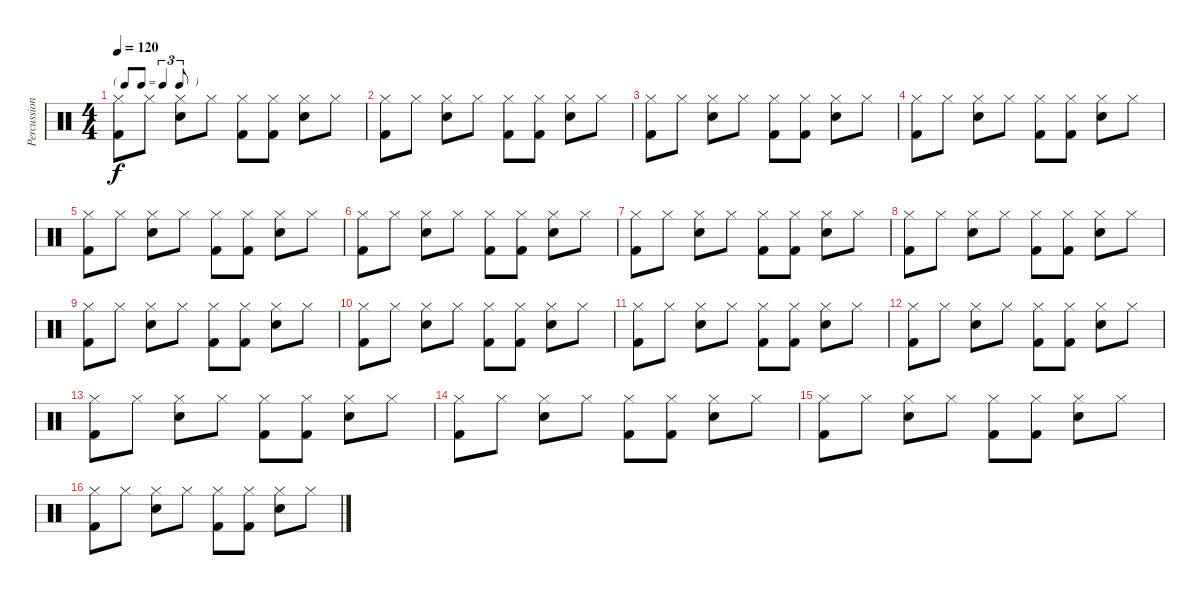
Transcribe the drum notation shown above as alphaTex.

\track ("Percussion" "Percussion") {instrument percussion}
\staff {score}
\articulation defaults
\ts (4 4)
\tf triplet8th
\tempo 120
\clef neutral
\ks c
("Hi-Hat (closed)" "Kick (hit) 2").8{dy f} "Hi-Hat (closed)".8 ("Hi-Hat (closed)" "Snare (hit) 2").8 "Hi-Hat (closed)".8 ("Hi-Hat (closed)" "Kick (hit) 2").8 ("Hi-Hat (closed)" "Kick (hit) 2").8 ("Hi-Hat (closed)" "Snare (hit) 2").8 "Hi-Hat (closed)".8 |
("Hi-Hat (closed)" "Kick (hit) 2").8 "Hi-Hat (closed)".8 ("Hi-Hat (closed)" "Snare (hit) 2").8 "Hi-Hat (closed)".8 ("Hi-Hat (closed)" "Kick (hit) 2").8 ("Hi-Hat (closed)" "Kick (hit) 2").8 ("Hi-Hat (closed)" "Snare (hit) 2").8 "Hi-Hat (closed)".8 |
("Hi-Hat (closed)" "Kick (hit) 2").8 "Hi-Hat (closed)".8 ("Hi-Hat (closed)" "Snare (hit) 2").8 "Hi-Hat (closed)".8 ("Hi-Hat (closed)" "Kick (hit) 2").8 ("Hi-Hat (closed)" "Kick (hit) 2").8 ("Hi-Hat (closed)" "Snare (hit) 2").8 "Hi-Hat (closed)".8 |
("Hi-Hat (closed)" "Kick (hit) 2").8 "Hi-Hat (closed)".8 ("Hi-Hat (closed)" "Snare (hit) 2").8 "Hi-Hat (closed)".8 ("Hi-Hat (closed)" "Kick (hit) 2").8 ("Hi-Hat (closed)" "Kick (hit) 2").8 ("Hi-Hat (closed)" "Snare (hit) 2").8 "Hi-Hat (closed)".8 |
("Hi-Hat (closed)" "Kick (hit) 2").8 "Hi-Hat (closed)".8 ("Hi-Hat (closed)" "Snare (hit) 2").8 "Hi-Hat (closed)".8 ("Hi-Hat (closed)" "Kick (hit) 2").8 ("Hi-Hat (closed)" "Kick (hit) 2").8 ("Hi-Hat (closed)" "Snare (hit) 2").8 "Hi-Hat (closed)".8 |
("Hi-Hat (closed)" "Kick (hit) 2").8 "Hi-Hat (closed)".8 ("Hi-Hat (closed)" "Snare (hit) 2").8 "Hi-Hat (closed)".8 ("Hi-Hat (closed)" "Kick (hit) 2").8 ("Hi-Hat (closed)" "Kick (hit) 2").8 ("Hi-Hat (closed)" "Snare (hit) 2").8 "Hi-Hat (closed)".8 |
("Hi-Hat (closed)" "Kick (hit) 2").8 "Hi-Hat (closed)".8 ("Hi-Hat (closed)" "Snare (hit) 2").8 "Hi-Hat (closed)".8 ("Hi-Hat (closed)" "Kick (hit) 2").8 ("Hi-Hat (closed)" "Kick (hit) 2").8 ("Hi-Hat (closed)" "Snare (hit) 2").8 "Hi-Hat (closed)".8 |
("Hi-Hat (closed)" "Kick (hit) 2").8 "Hi-Hat (closed)".8 ("Hi-Hat (closed)" "Snare (hit) 2").8 "Hi-Hat (closed)".8 ("Hi-Hat (closed)" "Kick (hit) 2").8 ("Hi-Hat (closed)" "Kick (hit) 2").8 ("Hi-Hat (closed)" "Snare (hit) 2").8 "Hi-Hat (closed)".8 |
("Hi-Hat (closed)" "Kick (hit) 2").8 "Hi-Hat (closed)".8 ("Hi-Hat (closed)" "Snare (hit) 2").8 "Hi-Hat (closed)".8 ("Hi-Hat (closed)" "Kick (hit) 2").8 ("Hi-Hat (closed)" "Kick (hit) 2").8 ("Hi-Hat (closed)" "Snare (hit) 2").8 "Hi-Hat (closed)".8 |
("Hi-Hat (closed)" "Kick (hit) 2").8 "Hi-Hat (closed)".8 ("Hi-Hat (closed)" "Snare (hit) 2").8 "Hi-Hat (closed)".8 ("Hi-Hat (closed)" "Kick (hit) 2").8 ("Hi-Hat (closed)" "Kick (hit) 2").8 ("Hi-Hat (closed)" "Snare (hit) 2").8 "Hi-Hat (closed)".8 |
("Hi-Hat (closed)" "Kick (hit) 2").8 "Hi-Hat (closed)".8 ("Hi-Hat (closed)" "Snare (hit) 2").8 "Hi-Hat (closed)".8 ("Hi-Hat (closed)" "Kick (hit) 2").8 ("Hi-Hat (closed)" "Kick (hit) 2").8 ("Hi-Hat (closed)" "Snare (hit) 2").8 "Hi-Hat (closed)".8 |
("Hi-Hat (closed)" "Kick (hit) 2").8 "Hi-Hat (closed)".8 ("Hi-Hat (closed)" "Snare (hit) 2").8 "Hi-Hat (closed)".8 ("Hi-Hat (closed)" "Kick (hit) 2").8 ("Hi-Hat (closed)" "Kick (hit) 2").8 ("Hi-Hat (closed)" "Snare (hit) 2").8 "Hi-Hat (closed)".8 |
("Hi-Hat (closed)" "Kick (hit) 2").8 "Hi-Hat (closed)".8 ("Hi-Hat (closed)" "Snare (hit) 2").8 "Hi-Hat (closed)".8 ("Hi-Hat (closed)" "Kick (hit) 2").8 ("Hi-Hat (closed)" "Kick (hit) 2").8 ("Hi-Hat (closed)" "Snare (hit) 2").8 "Hi-Hat (closed)".8 |
("Hi-Hat (closed)" "Kick (hit) 2").8 "Hi-Hat (closed)".8 ("Hi-Hat (closed)" "Snare (hit) 2").8 "Hi-Hat (closed)".8 ("Hi-Hat (closed)" "Kick (hit) 2").8 ("Hi-Hat (closed)" "Kick (hit) 2").8 ("Hi-Hat (closed)" "Snare (hit) 2").8 "Hi-Hat (closed)".8 |
("Hi-Hat (closed)" "Kick (hit) 2").8 "Hi-Hat (closed)".8 ("Hi-Hat (closed)" "Snare (hit) 2").8 "Hi-Hat (closed)".8 ("Hi-Hat (closed)" "Kick (hit) 2").8 ("Hi-Hat (closed)" "Kick (hit) 2").8 ("Hi-Hat (closed)" "Snare (hit) 2").8 "Hi-Hat (closed)".8 |
("Hi-Hat (closed)" "Kick (hit) 2").8 "Hi-Hat (closed)".8 ("Hi-Hat (closed)" "Snare (hit) 2").8 "Hi-Hat (closed)".8 ("Hi-Hat (closed)" "Kick (hit) 2").8 ("Hi-Hat (closed)" "Kick (hit) 2").8 ("Hi-Hat (closed)" "Snare (hit) 2").8 "Hi-Hat (closed)".8
